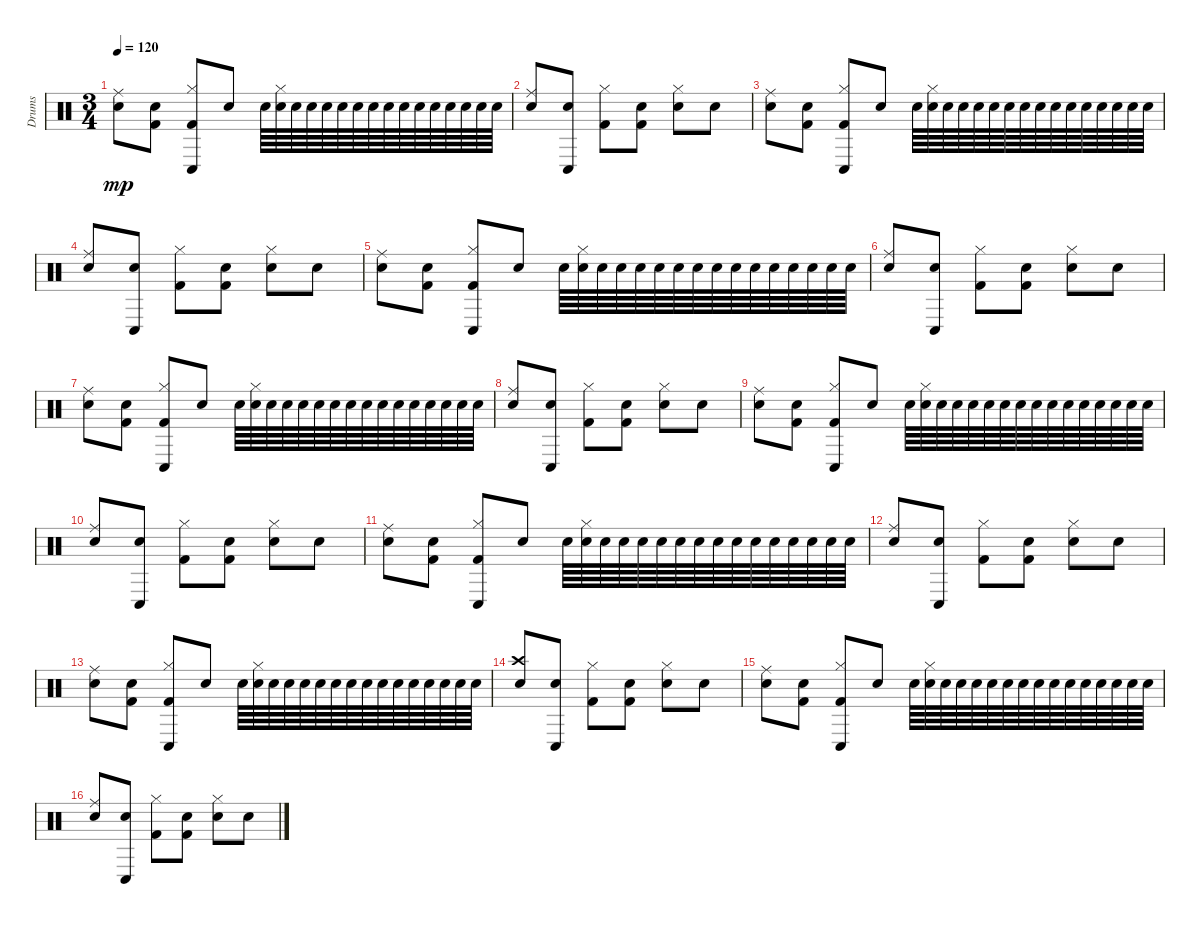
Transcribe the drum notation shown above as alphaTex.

\track ("Drums" "Drums") {instrument percussion}
\staff {score}
\articulation defaults
\ts (3 4)
\tempo 120
\clef neutral
\ks c
("Ride (middle)" "Snare (hit) 2").8{dy mp} ("Snare (hit) 2" "Kick (hit) 2").8 ("Hi-Hat (closed)" "Kick (hit) 2" "Conga low (hit)").8 "Snare (hit) 2".8 "Snare (hit) 2".64 ("Hi-Hat (closed)" "Snare (hit) 2").64 "Snare (hit) 2".64 "Snare (hit) 2".64 "Snare (hit) 2".64 "Snare (hit) 2".64 "Snare (hit) 2".64 "Snare (hit) 2".64 "Snare (hit) 2".64 "Snare (hit) 2".64 "Snare (hit) 2".64 "Snare (hit) 2".64 "Snare (hit) 2".64 "Snare (hit) 2".64 "Snare (hit) 2".64 "Snare (hit) 2".64 |
("Ride (middle)" "Snare (hit) 2").8 ("Snare (hit) 2" "Conga low (hit)").8 ("Hi-Hat (closed)" "Kick (hit) 2").8 ("Snare (hit) 2" "Kick (hit) 2").8 ("Hi-Hat (closed)" "Snare (hit) 2").8 "Snare (hit) 2".8 |
("Ride (middle)" "Snare (hit) 2").8 ("Snare (hit) 2" "Kick (hit) 2").8 ("Hi-Hat (closed)" "Kick (hit) 2" "Conga low (hit)").8 "Snare (hit) 2".8 "Snare (hit) 2".64 ("Hi-Hat (closed)" "Snare (hit) 2").64 "Snare (hit) 2".64 "Snare (hit) 2".64 "Snare (hit) 2".64 "Snare (hit) 2".64 "Snare (hit) 2".64 "Snare (hit) 2".64 "Snare (hit) 2".64 "Snare (hit) 2".64 "Snare (hit) 2".64 "Snare (hit) 2".64 "Snare (hit) 2".64 "Snare (hit) 2".64 "Snare (hit) 2".64 "Snare (hit) 2".64 |
("Ride (middle)" "Snare (hit) 2").8 ("Snare (hit) 2" "Conga low (hit)").8 ("Hi-Hat (closed)" "Kick (hit) 2").8 ("Snare (hit) 2" "Kick (hit) 2").8 ("Hi-Hat (closed)" "Snare (hit) 2").8 "Snare (hit) 2".8 |
("Ride (middle)" "Snare (hit) 2").8 ("Snare (hit) 2" "Kick (hit) 2").8 ("Hi-Hat (closed)" "Kick (hit) 2" "Conga low (hit)").8 "Snare (hit) 2".8 "Snare (hit) 2".64 ("Hi-Hat (closed)" "Snare (hit) 2").64 "Snare (hit) 2".64 "Snare (hit) 2".64 "Snare (hit) 2".64 "Snare (hit) 2".64 "Snare (hit) 2".64 "Snare (hit) 2".64 "Snare (hit) 2".64 "Snare (hit) 2".64 "Snare (hit) 2".64 "Snare (hit) 2".64 "Snare (hit) 2".64 "Snare (hit) 2".64 "Snare (hit) 2".64 "Snare (hit) 2".64 |
("Ride (middle)" "Snare (hit) 2").8 ("Snare (hit) 2" "Conga low (hit)").8 ("Hi-Hat (closed)" "Kick (hit) 2").8 ("Snare (hit) 2" "Kick (hit) 2").8 ("Hi-Hat (closed)" "Snare (hit) 2").8 "Snare (hit) 2".8 |
("Ride (middle)" "Snare (hit) 2").8 ("Snare (hit) 2" "Kick (hit) 2").8 ("Hi-Hat (closed)" "Kick (hit) 2" "Conga low (hit)").8 "Snare (hit) 2".8 "Snare (hit) 2".64 ("Hi-Hat (closed)" "Snare (hit) 2").64 "Snare (hit) 2".64 "Snare (hit) 2".64 "Snare (hit) 2".64 "Snare (hit) 2".64 "Snare (hit) 2".64 "Snare (hit) 2".64 "Snare (hit) 2".64 "Snare (hit) 2".64 "Snare (hit) 2".64 "Snare (hit) 2".64 "Snare (hit) 2".64 "Snare (hit) 2".64 "Snare (hit) 2".64 "Snare (hit) 2".64 |
("Ride (middle)" "Snare (hit) 2").8 ("Snare (hit) 2" "Conga low (hit)").8 ("Hi-Hat (closed)" "Kick (hit) 2").8 ("Snare (hit) 2" "Kick (hit) 2").8 ("Hi-Hat (closed)" "Snare (hit) 2").8 "Snare (hit) 2".8 |
("Ride (middle)" "Snare (hit) 2").8 ("Snare (hit) 2" "Kick (hit) 2").8 ("Hi-Hat (closed)" "Kick (hit) 2" "Conga low (hit)").8 "Snare (hit) 2".8 "Snare (hit) 2".64 ("Hi-Hat (closed)" "Snare (hit) 2").64 "Snare (hit) 2".64 "Snare (hit) 2".64 "Snare (hit) 2".64 "Snare (hit) 2".64 "Snare (hit) 2".64 "Snare (hit) 2".64 "Snare (hit) 2".64 "Snare (hit) 2".64 "Snare (hit) 2".64 "Snare (hit) 2".64 "Snare (hit) 2".64 "Snare (hit) 2".64 "Snare (hit) 2".64 "Snare (hit) 2".64 |
("Ride (middle)" "Snare (hit) 2").8 ("Snare (hit) 2" "Conga low (hit)").8 ("Hi-Hat (closed)" "Kick (hit) 2").8 ("Snare (hit) 2" "Kick (hit) 2").8 ("Hi-Hat (closed)" "Snare (hit) 2").8 "Snare (hit) 2".8 |
("Ride (middle)" "Snare (hit) 2").8 ("Snare (hit) 2" "Kick (hit) 2").8 ("Hi-Hat (closed)" "Kick (hit) 2" "Conga low (hit)").8 "Snare (hit) 2".8 "Snare (hit) 2".64 ("Hi-Hat (closed)" "Snare (hit) 2").64 "Snare (hit) 2".64 "Snare (hit) 2".64 "Snare (hit) 2".64 "Snare (hit) 2".64 "Snare (hit) 2".64 "Snare (hit) 2".64 "Snare (hit) 2".64 "Snare (hit) 2".64 "Snare (hit) 2".64 "Snare (hit) 2".64 "Snare (hit) 2".64 "Snare (hit) 2".64 "Snare (hit) 2".64 "Snare (hit) 2".64 |
("Ride (middle)" "Snare (hit) 2").8 ("Snare (hit) 2" "Conga low (hit)").8 ("Hi-Hat (closed)" "Kick (hit) 2").8 ("Snare (hit) 2" "Kick (hit) 2").8 ("Hi-Hat (closed)" "Snare (hit) 2").8 "Snare (hit) 2".8 |
("Ride (middle)" "Snare (hit) 2").8 ("Snare (hit) 2" "Kick (hit) 2").8 ("Hi-Hat (closed)" "Kick (hit) 2" "Conga low (hit)").8 "Snare (hit) 2".8 "Snare (hit) 2".64 ("Hi-Hat (closed)" "Snare (hit) 2").64 "Snare (hit) 2".64 "Snare (hit) 2".64 "Snare (hit) 2".64 "Snare (hit) 2".64 "Snare (hit) 2".64 "Snare (hit) 2".64 "Snare (hit) 2".64 "Snare (hit) 2".64 "Snare (hit) 2".64 "Snare (hit) 2".64 "Snare (hit) 2".64 "Snare (hit) 2".64 "Snare (hit) 2".64 "Snare (hit) 2".64 |
("Crash high (hit)" "Snare (hit) 2").8 ("Snare (hit) 2" "Conga low (hit)").8 ("Hi-Hat (closed)" "Kick (hit) 2").8 ("Snare (hit) 2" "Kick (hit) 2").8 ("Hi-Hat (closed)" "Snare (hit) 2").8 "Snare (hit) 2".8 |
("Ride (middle)" "Snare (hit) 2").8 ("Snare (hit) 2" "Kick (hit) 2").8 ("Hi-Hat (closed)" "Kick (hit) 2" "Conga low (hit)").8 "Snare (hit) 2".8 "Snare (hit) 2".64 ("Hi-Hat (closed)" "Snare (hit) 2").64 "Snare (hit) 2".64 "Snare (hit) 2".64 "Snare (hit) 2".64 "Snare (hit) 2".64 "Snare (hit) 2".64 "Snare (hit) 2".64 "Snare (hit) 2".64 "Snare (hit) 2".64 "Snare (hit) 2".64 "Snare (hit) 2".64 "Snare (hit) 2".64 "Snare (hit) 2".64 "Snare (hit) 2".64 "Snare (hit) 2".64 |
("Ride (middle)" "Snare (hit) 2").8 ("Snare (hit) 2" "Conga low (hit)").8 ("Hi-Hat (closed)" "Kick (hit) 2").8 ("Snare (hit) 2" "Kick (hit) 2").8 ("Hi-Hat (closed)" "Snare (hit) 2").8 "Snare (hit) 2".8
